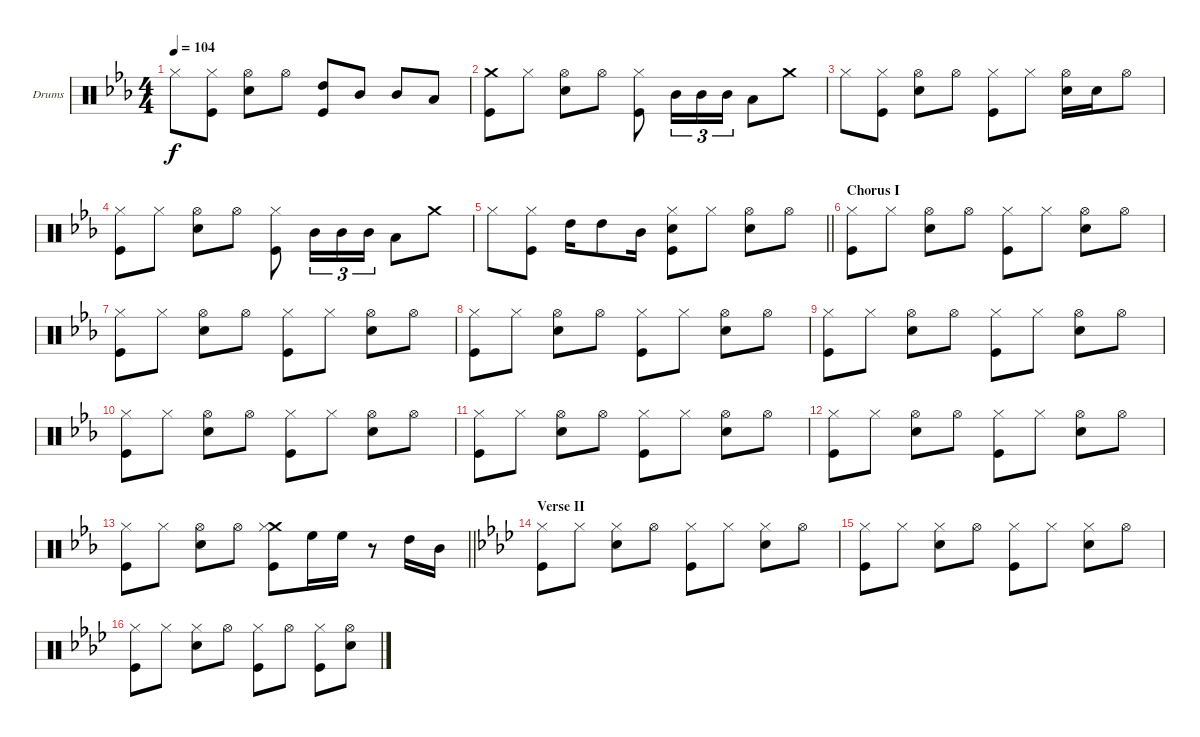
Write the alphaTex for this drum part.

\bracketExtendMode groupsimilarinstruments
\firstSystemTrackNameOrientation horizontal
\otherSystemsTrackNameOrientation horizontal
\track ("Drumkit" "Drums") {instrument percussion}
\staff {score}
\articulation defaults
\ts (4 4)
\tempo 104
\clef neutral
\ks eb "Hi-Hat (closed)".8{dy f}
("Hi-Hat (closed)" "Kick (hit)").8 ("Hi-Hat (open)" "Snare (hit) 2").8 "Hi-Hat (open)".8 ("High Tom (hit)" "Kick (hit)").8 "Mid Tom (hit)".8 "Mid Tom (hit)".8 "Low Tom (hit)".8 |
("Crash medium (hit)" "Kick (hit)").8 "Hi-Hat (closed)".8 ("Hi-Hat (open)" "Snare (hit) 2").8 "Hi-Hat (open)".8 ("Hi-Hat (closed)" "Kick (hit)").8 "Mid Tom (hit)".16{tu (3 2)} "Mid Tom (hit)".16{tu (3 2)} "Mid Tom (hit)".16{tu (3 2)} "Low Tom (hit)".8 "Crash medium (hit)".8 |
"Hi-Hat (closed)".8 ("Hi-Hat (closed)" "Kick (hit)").8 ("Hi-Hat (open)" "Snare (hit) 2").8 "Hi-Hat (open)".8 ("Hi-Hat (closed)" "Kick (hit)").8 "Hi-Hat (closed)".8 ("Hi-Hat (open)" "Snare (hit) 2").16 "Snare (hit) 2".16 "Hi-Hat (open)".8 |
("Hi-Hat (closed)" "Kick (hit)").8 "Hi-Hat (closed)".8 ("Hi-Hat (open)" "Snare (hit) 2").8 "Hi-Hat (open)".8 ("Hi-Hat (closed)" "Kick (hit)").8 "Mid Tom (hit)".16{tu (3 2)} "Mid Tom (hit)".16{tu (3 2)} "Mid Tom (hit)".16{tu (3 2)} "Low Tom (hit)".8 "Crash medium (hit)".8 |
\barLineRight lightlight "Hi-Hat (closed)".8
("Hi-Hat (closed)" "Kick (hit)").8 "High Tom (hit)".16 "High Tom (hit)".8 "Mid Tom (hit)".16 ("Hi-Hat (closed)" "Snare (hit) 2" "Kick (hit)").8 "Hi-Hat (closed)".8 ("Hi-Hat (open)" "Snare (hit) 2").8 "Hi-Hat (open)".8 |
\section ("" "Chorus I")
("Hi-Hat (closed)" "Kick (hit)").8 "Hi-Hat (closed)".8 ("Hi-Hat (open)" "Snare (hit) 2").8 "Hi-Hat (open)".8 ("Hi-Hat (closed)" "Kick (hit)").8 "Hi-Hat (closed)".8 ("Hi-Hat (open)" "Snare (hit) 2").8 "Hi-Hat (open)".8 |
("Hi-Hat (closed)" "Kick (hit)").8 "Hi-Hat (closed)".8 ("Hi-Hat (open)" "Snare (hit) 2").8 "Hi-Hat (open)".8 ("Hi-Hat (closed)" "Kick (hit)").8 "Hi-Hat (closed)".8 ("Hi-Hat (open)" "Snare (hit) 2").8 "Hi-Hat (open)".8 |
("Hi-Hat (closed)" "Kick (hit)").8 "Hi-Hat (closed)".8 ("Hi-Hat (open)" "Snare (hit) 2").8 "Hi-Hat (open)".8 ("Hi-Hat (closed)" "Kick (hit)").8 "Hi-Hat (closed)".8 ("Hi-Hat (open)" "Snare (hit) 2").8 "Hi-Hat (open)".8 |
("Hi-Hat (closed)" "Kick (hit)").8 "Hi-Hat (closed)".8 ("Hi-Hat (open)" "Snare (hit) 2").8 "Hi-Hat (open)".8 ("Hi-Hat (closed)" "Kick (hit)").8 "Hi-Hat (closed)".8 ("Hi-Hat (open)" "Snare (hit) 2").8 "Hi-Hat (open)".8 |
("Hi-Hat (closed)" "Kick (hit)").8 "Hi-Hat (closed)".8 ("Hi-Hat (open)" "Snare (hit) 2").8 "Hi-Hat (open)".8 ("Hi-Hat (closed)" "Kick (hit)").8 "Hi-Hat (closed)".8 ("Hi-Hat (open)" "Snare (hit) 2").8 "Hi-Hat (open)".8 |
("Hi-Hat (closed)" "Kick (hit)").8 "Hi-Hat (closed)".8 ("Hi-Hat (open)" "Snare (hit) 2").8 "Hi-Hat (open)".8 ("Hi-Hat (closed)" "Kick (hit)").8 "Hi-Hat (closed)".8 ("Hi-Hat (open)" "Snare (hit) 2").8 "Hi-Hat (open)".8 |
("Hi-Hat (closed)" "Kick (hit)").8 "Hi-Hat (closed)".8 ("Hi-Hat (open)" "Snare (hit) 2").8 "Hi-Hat (open)".8 ("Hi-Hat (closed)" "Kick (hit)").8 "Hi-Hat (closed)".8 ("Hi-Hat (open)" "Snare (hit) 2").8 "Hi-Hat (open)".8 |
\barLineRight lightlight
("Hi-Hat (closed)" "Kick (hit)").8 "Hi-Hat (closed)".8 ("Hi-Hat (open)" "Snare (hit) 2").8 "Hi-Hat (open)".8 ("Crash medium (hit)" "Hi-Hat (closed)" "Kick (hit)").8 "High Floor Tom (hit)".16 "High Floor Tom (hit)".16 r.8 "High Tom (hit)".16 "Mid Tom (hit)".16 |
\section ("" "Verse II")
\ks ab
("Hi-Hat (closed)" "Kick (hit)").8 "Hi-Hat (closed)".8 ("Hi-Hat (closed)" "Snare (hit) 2").8 "Hi-Hat (open)".8 ("Hi-Hat (closed)" "Kick (hit)").8 "Hi-Hat (closed)".8 ("Hi-Hat (closed)" "Snare (hit) 2").8 "Hi-Hat (open)".8 |
("Hi-Hat (closed)" "Kick (hit)").8 "Hi-Hat (closed)".8 ("Hi-Hat (closed)" "Snare (hit) 2").8 "Hi-Hat (open)".8 ("Hi-Hat (closed)" "Kick (hit)").8 "Hi-Hat (closed)".8 ("Hi-Hat (closed)" "Snare (hit) 2").8 "Hi-Hat (open)".8 |
("Hi-Hat (closed)" "Kick (hit)").8 "Hi-Hat (closed)".8 ("Hi-Hat (closed)" "Snare (hit) 2").8 "Hi-Hat (open)".8 ("Hi-Hat (closed)" "Kick (hit)").8 "Hi-Hat (open)".8 ("Hi-Hat (closed)" "Kick (hit)").8 ("Hi-Hat (open)" "Snare (hit) 2").8
